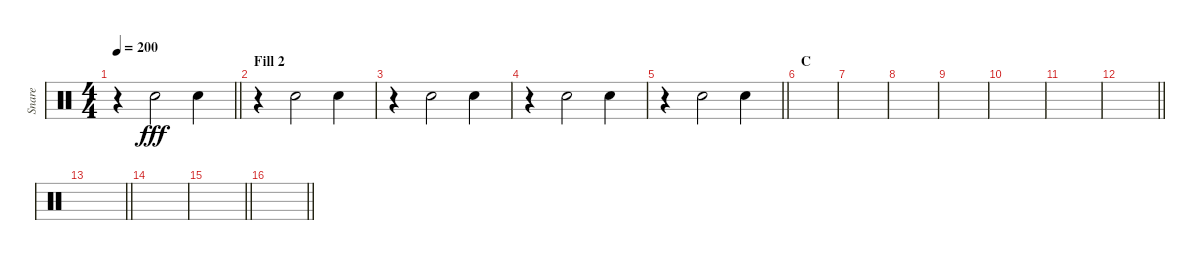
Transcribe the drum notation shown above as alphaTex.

\track ("Snare" "Snare") {instrument percussion}
\staff {score}
\articulation defaults
\ts (4 4)
\tempo 200
\clef neutral
\barLineRight lightlight
\ks c
r.4{dy fff} "Snare (hit) 2".2 "Snare (hit) 2".4 |
\section ("" "Fill 2")
r.4 "Snare (hit) 2".2 "Snare (hit) 2".4 |
r.4 "Snare (hit) 2".2 "Snare (hit) 2".4 |
r.4 "Snare (hit) 2".2 "Snare (hit) 2".4 |
\barLineRight lightlight
r.4 "Snare (hit) 2".2 "Snare (hit) 2".4 |
\section ("" "C")
|
|
|
|
|
|
\barLineRight lightlight
|
\barLineRight lightlight
|
\section ("" " ")
|
\barLineRight lightlight
|
\barLineRight lightlight
